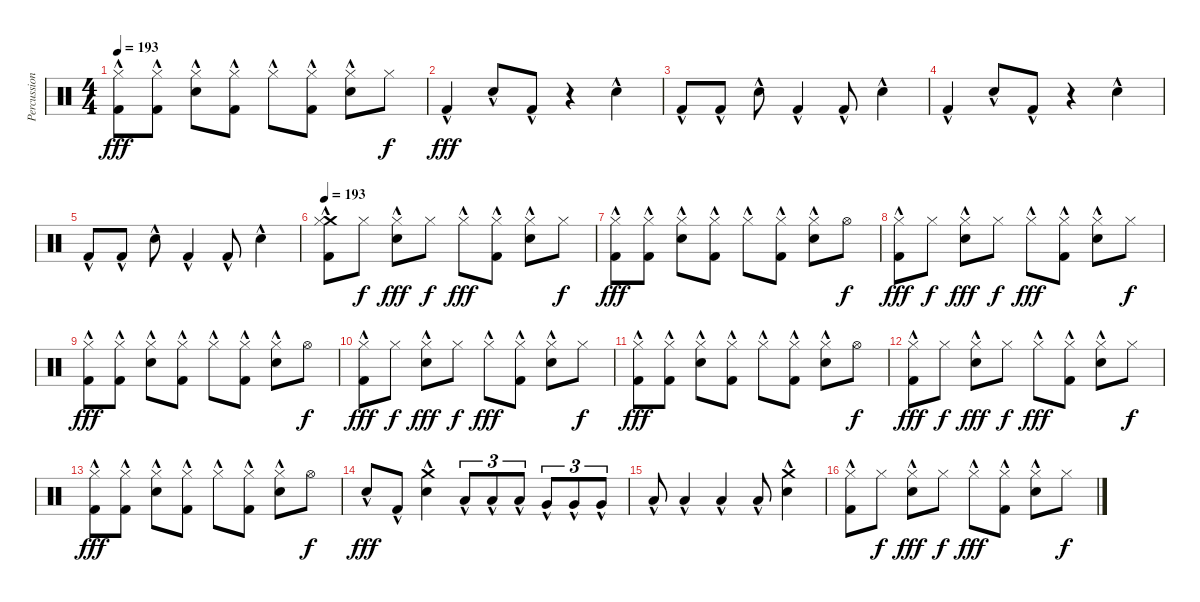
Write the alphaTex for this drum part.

\track ("Percussion" "Percussion") {instrument percussion}
\staff {score}
\articulation defaults
\ts (4 4)
\tempo 193
\clef neutral
\ks c
("Hi-Hat (closed)"{hac} "Kick (hit) 2"{hac}).8{dy fff} ("Hi-Hat (closed)" "Kick (hit) 2"{hac}).8 ("Hi-Hat (closed)"{hac} "Electric Snare (hit)"{hac}).8 ("Hi-Hat (closed)" "Kick (hit) 2"{hac}).8 "Hi-Hat (closed)"{hac}.8 ("Hi-Hat (closed)" "Kick (hit) 2"{hac}).8 ("Hi-Hat (closed)"{hac} "Electric Snare (hit)"{hac}).8 "Hi-Hat (closed)".8{dy f} |
"Kick (hit) 2"{hac}.4{dy fff} "Electric Snare (hit)"{hac}.8 "Kick (hit) 2"{hac}.8 r.4 "Electric Snare (hit)"{hac}.4 |
"Kick (hit) 2"{hac}.8 "Kick (hit) 2"{hac}.8 "Electric Snare (hit)"{hac}.8 "Kick (hit) 2"{hac}.4 "Kick (hit) 2"{hac}.8 "Electric Snare (hit)"{hac}.4 |
"Kick (hit) 2"{hac}.4 "Electric Snare (hit)"{hac}.8 "Kick (hit) 2"{hac}.8 r.4 "Electric Snare (hit)"{hac}.4 |
"Kick (hit) 2"{hac}.8 "Kick (hit) 2"{hac}.8 "Electric Snare (hit)"{hac}.8 "Kick (hit) 2"{hac}.4 "Kick (hit) 2"{hac}.8 "Electric Snare (hit)"{hac}.4 |
\tempo 193
("Crash medium (hit)"{hac} "Hi-Hat (closed)"{hac} "Kick (hit) 2"{hac}).8 "Hi-Hat (closed)".8{dy f} ("Hi-Hat (closed)"{hac} "Electric Snare (hit)"{hac}).8{dy fff} "Hi-Hat (closed)".8{dy f} "Hi-Hat (closed)"{hac}.8{dy fff} ("Hi-Hat (closed)" "Kick (hit) 2"{hac}).8 ("Hi-Hat (closed)"{hac} "Electric Snare (hit)"{hac}).8 "Hi-Hat (closed)".8{dy f} |
("Hi-Hat (closed)"{hac} "Kick (hit) 2"{hac}).8{dy fff} ("Hi-Hat (closed)" "Kick (hit) 2"{hac}).8 ("Hi-Hat (closed)"{hac} "Electric Snare (hit)"{hac}).8 ("Hi-Hat (closed)" "Kick (hit) 2"{hac}).8 "Hi-Hat (closed)"{hac}.8 ("Hi-Hat (closed)" "Kick (hit) 2"{hac}).8 ("Hi-Hat (closed)"{hac} "Electric Snare (hit)"{hac}).8 "Hi-Hat (open)".8{dy f} |
("Hi-Hat (closed)"{hac} "Kick (hit) 2"{hac}).8{dy fff} "Hi-Hat (closed)".8{dy f} ("Hi-Hat (closed)"{hac} "Electric Snare (hit)"{hac}).8{dy fff} "Hi-Hat (closed)".8{dy f} "Hi-Hat (closed)"{hac}.8{dy fff} ("Hi-Hat (closed)" "Kick (hit) 2"{hac}).8 ("Hi-Hat (closed)"{hac} "Electric Snare (hit)"{hac}).8 "Hi-Hat (closed)".8{dy f} |
("Hi-Hat (closed)"{hac} "Kick (hit) 2"{hac}).8{dy fff} ("Hi-Hat (closed)" "Kick (hit) 2"{hac}).8 ("Hi-Hat (closed)"{hac} "Electric Snare (hit)"{hac}).8 ("Hi-Hat (closed)" "Kick (hit) 2"{hac}).8 "Hi-Hat (closed)"{hac}.8 ("Hi-Hat (closed)" "Kick (hit) 2"{hac}).8 ("Hi-Hat (closed)"{hac} "Electric Snare (hit)"{hac}).8 "Hi-Hat (open)".8{dy f} |
("Hi-Hat (closed)"{hac} "Kick (hit) 2"{hac}).8{dy fff} "Hi-Hat (closed)".8{dy f} ("Hi-Hat (closed)"{hac} "Electric Snare (hit)"{hac}).8{dy fff} "Hi-Hat (closed)".8{dy f} "Hi-Hat (closed)"{hac}.8{dy fff} ("Hi-Hat (closed)" "Kick (hit) 2"{hac}).8 ("Hi-Hat (closed)"{hac} "Electric Snare (hit)"{hac}).8 "Hi-Hat (closed)".8{dy f} |
("Hi-Hat (closed)"{hac} "Kick (hit) 2"{hac}).8{dy fff} ("Hi-Hat (closed)" "Kick (hit) 2"{hac}).8 ("Hi-Hat (closed)"{hac} "Electric Snare (hit)"{hac}).8 ("Hi-Hat (closed)" "Kick (hit) 2"{hac}).8 "Hi-Hat (closed)"{hac}.8 ("Hi-Hat (closed)" "Kick (hit) 2"{hac}).8 ("Hi-Hat (closed)"{hac} "Electric Snare (hit)"{hac}).8 "Hi-Hat (open)".8{dy f} |
("Hi-Hat (closed)"{hac} "Kick (hit) 2"{hac}).8{dy fff} "Hi-Hat (closed)".8{dy f} ("Hi-Hat (closed)"{hac} "Electric Snare (hit)"{hac}).8{dy fff} "Hi-Hat (closed)".8{dy f} "Hi-Hat (closed)"{hac}.8{dy fff} ("Hi-Hat (closed)" "Kick (hit) 2"{hac}).8 ("Hi-Hat (closed)"{hac} "Electric Snare (hit)"{hac}).8 "Hi-Hat (closed)".8{dy f} |
("Hi-Hat (closed)"{hac} "Kick (hit) 2"{hac}).8{dy fff} ("Hi-Hat (closed)" "Kick (hit) 2"{hac}).8 ("Hi-Hat (closed)"{hac} "Electric Snare (hit)"{hac}).8 ("Hi-Hat (closed)" "Kick (hit) 2"{hac}).8 "Hi-Hat (closed)"{hac}.8 ("Hi-Hat (closed)" "Kick (hit) 2"{hac}).8 ("Hi-Hat (closed)"{hac} "Electric Snare (hit)"{hac}).8 "Hi-Hat (open)".8{dy f} |
"Electric Snare (hit)"{hac}.8{dy fff} "Kick (hit) 2"{hac}.8 ("Crash medium (hit)"{hac} "Electric Snare (hit)"{hac}).4 "Low Tom (hit)"{hac}.8{tu (3 2)} "Low Tom (hit)"{hac}.8{tu (3 2)} "Low Tom (hit)"{hac}.8{tu (3 2)} "Very Low Tom (hit)"{hac}.8{tu (3 2)} "Very Low Tom (hit)"{hac}.8{tu (3 2)} "Very Low Tom (hit)"{hac}.8{tu (3 2)} |
"Low Floor Tom (hit)"{hac}.8 "Low Floor Tom (hit)"{hac}.4 "Low Floor Tom (hit)"{hac}.4 "Low Floor Tom (hit)"{hac}.8 ("Crash medium (hit)"{hac} "Electric Snare (hit)"{hac}).4 |
("Hi-Hat (closed)"{hac} "Kick (hit) 2"{hac}).8 "Hi-Hat (closed)".8{dy f} ("Hi-Hat (closed)"{hac} "Electric Snare (hit)"{hac}).8{dy fff} "Hi-Hat (closed)".8{dy f} "Hi-Hat (closed)"{hac}.8{dy fff} ("Hi-Hat (closed)" "Kick (hit) 2"{hac}).8 ("Hi-Hat (closed)"{hac} "Electric Snare (hit)"{hac}).8 "Hi-Hat (closed)".8{dy f}
